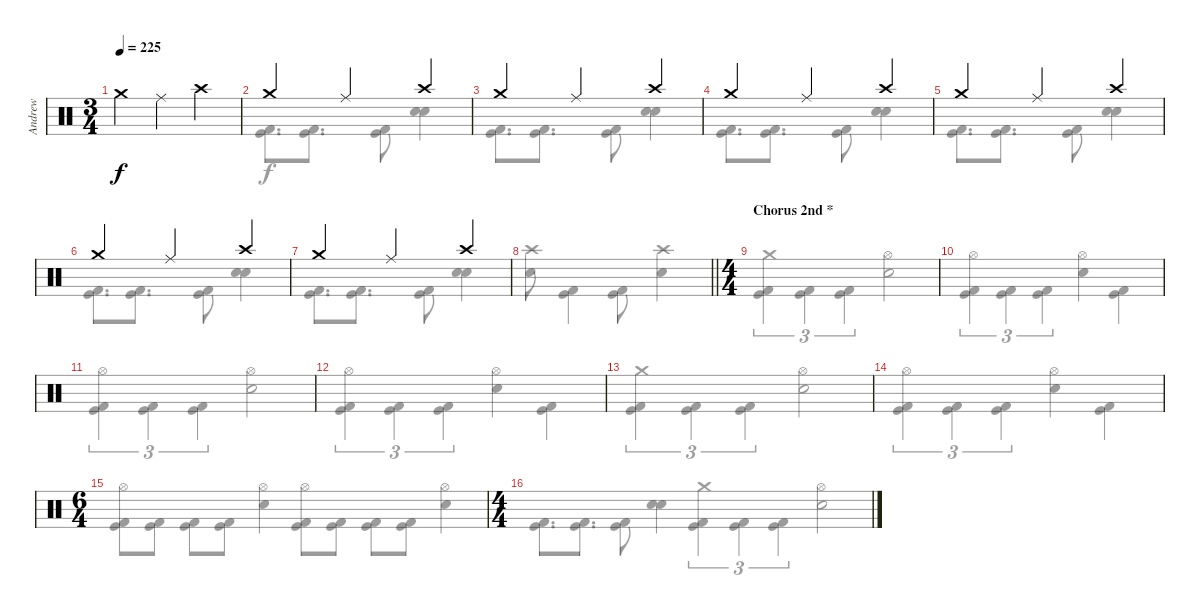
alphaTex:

\track ("Andrew" "Andrew") {instrument percussion}
\staff {score}
\articulation defaults
\voice
\ts (3 4)
\tempo 225
\clef neutral
\ks c "Crash medium (hit)".4{dy f} "Ride (middle)".4 "Crash high (hit)".4
|
"Crash medium (hit)".4 "Ride (middle)".4 "Crash high (hit)".4 |
"Crash medium (hit)".4 "Ride (middle)".4 "Crash high (hit)".4 |
"Crash medium (hit)".4 "Ride (middle)".4 "Crash high (hit)".4 |
"Crash medium (hit)".4 "Ride (middle)".4 "Crash high (hit)".4 |
"Crash medium (hit)".4 "Ride (middle)".4 "Crash high (hit)".4 |
"Crash medium (hit)".4 "Ride (middle)".4 "Crash high (hit)".4 |
\barLineRight lightlight
|
\ts (4 4)
\section ("" "Chorus 2nd *")
|
|
|
|
|
|
\ts (6 4)
|
\ts (4 4)
\voice
\clef neutral
\ottava regular
\simile none
\ks c
("Kick (hit)" "Kick (hit) 2").8{d dy f} ("Kick (hit)" "Kick (hit) 2").8{d} ("Kick (hit)" "Kick (hit) 2").8 ("Snare (hit) 2" "Snare (hit) 2").4 |
("Kick (hit)" "Kick (hit) 2").8{d} ("Kick (hit)" "Kick (hit) 2").8{d} ("Kick (hit)" "Kick (hit) 2").8 ("Snare (hit) 2" "Snare (hit) 2").4 |
("Kick (hit)" "Kick (hit) 2").8{d} ("Kick (hit)" "Kick (hit) 2").8{d} ("Kick (hit)" "Kick (hit) 2").8 ("Snare (hit) 2" "Snare (hit) 2").4 |
("Kick (hit)" "Kick (hit) 2").8{d} ("Kick (hit)" "Kick (hit) 2").8{d} ("Kick (hit)" "Kick (hit) 2").8 ("Snare (hit) 2" "Snare (hit) 2").4 |
("Kick (hit)" "Kick (hit) 2").8{d} ("Kick (hit)" "Kick (hit) 2").8{d} ("Kick (hit)" "Kick (hit) 2").8 ("Snare (hit) 2" "Snare (hit) 2").4 |
("Kick (hit)" "Kick (hit) 2").8{d} ("Kick (hit)" "Kick (hit) 2").8{d} ("Kick (hit)" "Kick (hit) 2").8 ("Snare (hit) 2" "Snare (hit) 2").4 |
("Kick (hit)" "Kick (hit) 2").8{d} ("Kick (hit)" "Kick (hit) 2").8{d} ("Kick (hit)" "Kick (hit) 2").8 ("Snare (hit) 2" "Snare (hit) 2").4 |
\barLineRight lightlight
("Crash high (hit)" "Snare (hit) 2").8 ("Kick (hit)" "Kick (hit) 2").4 ("Kick (hit)" "Kick (hit) 2").8 ("Crash high (hit)" "Snare (hit) 2").4 |
("Crash medium (hit)" "Kick (hit)" "Kick (hit) 2").4{tu (3 2)} ("Kick (hit)" "Kick (hit) 2").4{tu (3 2)} ("Kick (hit)" "Kick (hit) 2").4{tu (3 2)} ("Hi-Hat (open)" "Electric Snare (hit)").2 |
("Hi-Hat (open)" "Kick (hit)" "Kick (hit) 2").4{tu (3 2)} ("Kick (hit)" "Kick (hit) 2").4{tu (3 2)} ("Kick (hit)" "Kick (hit) 2").4{tu (3 2)} ("Hi-Hat (open)" "Electric Snare (hit)").4 ("Kick (hit)" "Kick (hit) 2").4 |
("Hi-Hat (open)" "Kick (hit)" "Kick (hit) 2").4{tu (3 2)} ("Kick (hit)" "Kick (hit) 2").4{tu (3 2)} ("Kick (hit)" "Kick (hit) 2").4{tu (3 2)} ("Hi-Hat (open)" "Electric Snare (hit)").2 |
("Hi-Hat (open)" "Kick (hit)" "Kick (hit) 2").4{tu (3 2)} ("Kick (hit)" "Kick (hit) 2").4{tu (3 2)} ("Kick (hit)" "Kick (hit) 2").4{tu (3 2)} ("Hi-Hat (open)" "Electric Snare (hit)").4 ("Kick (hit)" "Kick (hit) 2").4 |
("Crash medium (hit)" "Kick (hit)" "Kick (hit) 2").4{tu (3 2)} ("Kick (hit)" "Kick (hit) 2").4{tu (3 2)} ("Kick (hit)" "Kick (hit) 2").4{tu (3 2)} ("Hi-Hat (open)" "Electric Snare (hit)").2 |
("Hi-Hat (open)" "Kick (hit)" "Kick (hit) 2").4{tu (3 2)} ("Kick (hit)" "Kick (hit) 2").4{tu (3 2)} ("Kick (hit)" "Kick (hit) 2").4{tu (3 2)} ("Hi-Hat (open)" "Electric Snare (hit)").4 ("Kick (hit)" "Kick (hit) 2").4 |
("Hi-Hat (open)" "Kick (hit)" "Kick (hit) 2").8 ("Kick (hit)" "Kick (hit) 2").8 ("Kick (hit)" "Kick (hit) 2").8 ("Kick (hit)" "Kick (hit) 2").8 ("Hi-Hat (open)" "Snare (hit) 2").4 ("Hi-Hat (open)" "Kick (hit)" "Kick (hit) 2").8 ("Kick (hit)" "Kick (hit) 2").8 ("Kick (hit)" "Kick (hit) 2").8 ("Kick (hit)" "Kick (hit) 2").8 ("Hi-Hat (open)" "Snare (hit) 2").4 |
("Crash medium (hit)" "Kick (hit)" "Kick (hit) 2").4{tu (3 2)} ("Kick (hit)" "Kick (hit) 2").4{tu (3 2)} ("Kick (hit)" "Kick (hit) 2").4{tu (3 2)} ("Hi-Hat (open)" "Electric Snare (hit)").2
